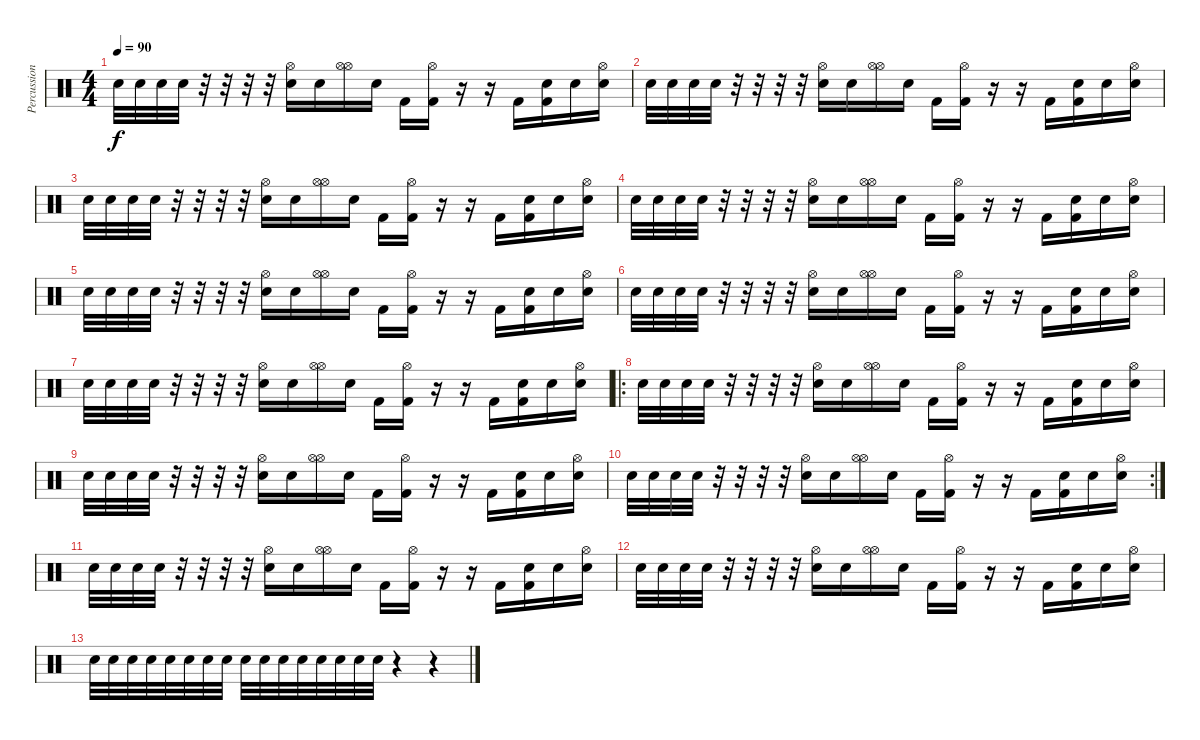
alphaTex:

\track ("Percussion" "Percussion") {instrument percussion}
\staff {score}
\articulation defaults
\ts (4 4)
\tempo 90
\clef neutral
\ks c "Electric Snare (hit)".32{dy f} "Electric Snare (hit)".32 "Electric Snare (hit)".32 "Electric Snare (hit)".32
r.32 r.32 r.32 r.32 ("Hi-Hat (open)" "Electric Snare (hit)").16 "Electric Snare (hit)".16 ("Hi-Hat (open)" "Hi-Hat (open)").16 "Electric Snare (hit)".16 "Kick (hit) 2".16 ("Hi-Hat (open)" "Kick (hit) 2").16 r.16 r.16 "Kick (hit) 2".16 ("Electric Snare (hit)" "Kick (hit) 2").16 "Electric Snare (hit)".16 ("Hi-Hat (open)" "Electric Snare (hit)").16 |
"Electric Snare (hit)".32 "Electric Snare (hit)".32 "Electric Snare (hit)".32 "Electric Snare (hit)".32 r.32 r.32 r.32 r.32 ("Hi-Hat (open)" "Electric Snare (hit)").16 "Electric Snare (hit)".16 ("Hi-Hat (open)" "Hi-Hat (open)").16 "Electric Snare (hit)".16 "Kick (hit) 2".16 ("Hi-Hat (open)" "Kick (hit) 2").16 r.16 r.16 "Kick (hit) 2".16 ("Electric Snare (hit)" "Kick (hit) 2").16 "Electric Snare (hit)".16 ("Hi-Hat (open)" "Electric Snare (hit)").16 |
"Electric Snare (hit)".32 "Electric Snare (hit)".32 "Electric Snare (hit)".32 "Electric Snare (hit)".32 r.32 r.32 r.32 r.32 ("Hi-Hat (open)" "Electric Snare (hit)").16 "Electric Snare (hit)".16 ("Hi-Hat (open)" "Hi-Hat (open)").16 "Electric Snare (hit)".16 "Kick (hit) 2".16 ("Hi-Hat (open)" "Kick (hit) 2").16 r.16 r.16 "Kick (hit) 2".16 ("Electric Snare (hit)" "Kick (hit) 2").16 "Electric Snare (hit)".16 ("Hi-Hat (open)" "Electric Snare (hit)").16 |
"Electric Snare (hit)".32 "Electric Snare (hit)".32 "Electric Snare (hit)".32 "Electric Snare (hit)".32 r.32 r.32 r.32 r.32 ("Hi-Hat (open)" "Electric Snare (hit)").16 "Electric Snare (hit)".16 ("Hi-Hat (open)" "Hi-Hat (open)").16 "Electric Snare (hit)".16 "Kick (hit) 2".16 ("Hi-Hat (open)" "Kick (hit) 2").16 r.16 r.16 "Kick (hit) 2".16 ("Electric Snare (hit)" "Kick (hit) 2").16 "Electric Snare (hit)".16 ("Hi-Hat (open)" "Electric Snare (hit)").16 |
"Electric Snare (hit)".32 "Electric Snare (hit)".32 "Electric Snare (hit)".32 "Electric Snare (hit)".32 r.32 r.32 r.32 r.32 ("Hi-Hat (open)" "Electric Snare (hit)").16 "Electric Snare (hit)".16 ("Hi-Hat (open)" "Hi-Hat (open)").16 "Electric Snare (hit)".16 "Kick (hit) 2".16 ("Hi-Hat (open)" "Kick (hit) 2").16 r.16 r.16 "Kick (hit) 2".16 ("Electric Snare (hit)" "Kick (hit) 2").16 "Electric Snare (hit)".16 ("Hi-Hat (open)" "Electric Snare (hit)").16 |
"Electric Snare (hit)".32 "Electric Snare (hit)".32 "Electric Snare (hit)".32 "Electric Snare (hit)".32 r.32 r.32 r.32 r.32 ("Hi-Hat (open)" "Electric Snare (hit)").16 "Electric Snare (hit)".16 ("Hi-Hat (open)" "Hi-Hat (open)").16 "Electric Snare (hit)".16 "Kick (hit) 2".16 ("Hi-Hat (open)" "Kick (hit) 2").16 r.16 r.16 "Kick (hit) 2".16 ("Electric Snare (hit)" "Kick (hit) 2").16 "Electric Snare (hit)".16 ("Hi-Hat (open)" "Electric Snare (hit)").16 |
"Electric Snare (hit)".32 "Electric Snare (hit)".32 "Electric Snare (hit)".32 "Electric Snare (hit)".32 r.32 r.32 r.32 r.32 ("Hi-Hat (open)" "Electric Snare (hit)").16 "Electric Snare (hit)".16 ("Hi-Hat (open)" "Hi-Hat (open)").16 "Electric Snare (hit)".16 "Kick (hit) 2".16 ("Hi-Hat (open)" "Kick (hit) 2").16 r.16 r.16 "Kick (hit) 2".16 ("Electric Snare (hit)" "Kick (hit) 2").16 "Electric Snare (hit)".16 ("Hi-Hat (open)" "Electric Snare (hit)").16 |
\ro "Electric Snare (hit)".32 "Electric Snare (hit)".32 "Electric Snare (hit)".32 "Electric Snare (hit)".32
r.32 r.32 r.32 r.32 ("Hi-Hat (open)" "Electric Snare (hit)").16 "Electric Snare (hit)".16 ("Hi-Hat (open)" "Hi-Hat (open)").16 "Electric Snare (hit)".16 "Kick (hit) 2".16 ("Hi-Hat (open)" "Kick (hit) 2").16 r.16 r.16 "Kick (hit) 2".16 ("Electric Snare (hit)" "Kick (hit) 2").16 "Electric Snare (hit)".16 ("Hi-Hat (open)" "Electric Snare (hit)").16 |
"Electric Snare (hit)".32 "Electric Snare (hit)".32 "Electric Snare (hit)".32 "Electric Snare (hit)".32 r.32 r.32 r.32 r.32 ("Hi-Hat (open)" "Electric Snare (hit)").16 "Electric Snare (hit)".16 ("Hi-Hat (open)" "Hi-Hat (open)").16 "Electric Snare (hit)".16 "Kick (hit) 2".16 ("Hi-Hat (open)" "Kick (hit) 2").16 r.16 r.16 "Kick (hit) 2".16 ("Electric Snare (hit)" "Kick (hit) 2").16 "Electric Snare (hit)".16 ("Hi-Hat (open)" "Electric Snare (hit)").16 |
\rc 2 "Electric Snare (hit)".32 "Electric Snare (hit)".32 "Electric Snare (hit)".32 "Electric Snare (hit)".32
r.32 r.32 r.32 r.32 ("Hi-Hat (open)" "Electric Snare (hit)").16 "Electric Snare (hit)".16 ("Hi-Hat (open)" "Hi-Hat (open)").16 "Electric Snare (hit)".16 "Kick (hit) 2".16 ("Hi-Hat (open)" "Kick (hit) 2").16 r.16 r.16 "Kick (hit) 2".16 ("Electric Snare (hit)" "Kick (hit) 2").16 "Electric Snare (hit)".16 ("Hi-Hat (open)" "Electric Snare (hit)").16 |
"Electric Snare (hit)".32 "Electric Snare (hit)".32 "Electric Snare (hit)".32 "Electric Snare (hit)".32 r.32 r.32 r.32 r.32 ("Hi-Hat (open)" "Electric Snare (hit)").16 "Electric Snare (hit)".16 ("Hi-Hat (open)" "Hi-Hat (open)").16 "Electric Snare (hit)".16 "Kick (hit) 2".16 ("Hi-Hat (open)" "Kick (hit) 2").16 r.16 r.16 "Kick (hit) 2".16 ("Electric Snare (hit)" "Kick (hit) 2").16 "Electric Snare (hit)".16 ("Hi-Hat (open)" "Electric Snare (hit)").16 |
"Electric Snare (hit)".32 "Electric Snare (hit)".32 "Electric Snare (hit)".32 "Electric Snare (hit)".32 r.32 r.32 r.32 r.32 ("Hi-Hat (open)" "Electric Snare (hit)").16 "Electric Snare (hit)".16 ("Hi-Hat (open)" "Hi-Hat (open)").16 "Electric Snare (hit)".16 "Kick (hit) 2".16 ("Hi-Hat (open)" "Kick (hit) 2").16 r.16 r.16 "Kick (hit) 2".16 ("Electric Snare (hit)" "Kick (hit) 2").16 "Electric Snare (hit)".16 ("Hi-Hat (open)" "Electric Snare (hit)").16 |
"Electric Snare (hit)".32 "Electric Snare (hit)".32 "Electric Snare (hit)".32 "Electric Snare (hit)".32 "Electric Snare (hit)".32 "Electric Snare (hit)".32 "Electric Snare (hit)".32 "Electric Snare (hit)".32 "Electric Snare (hit)".32 "Electric Snare (hit)".32 "Electric Snare (hit)".32 "Electric Snare (hit)".32 "Electric Snare (hit)".32 "Electric Snare (hit)".32 "Electric Snare (hit)".32 "Electric Snare (hit)".32 r.4 r.4
